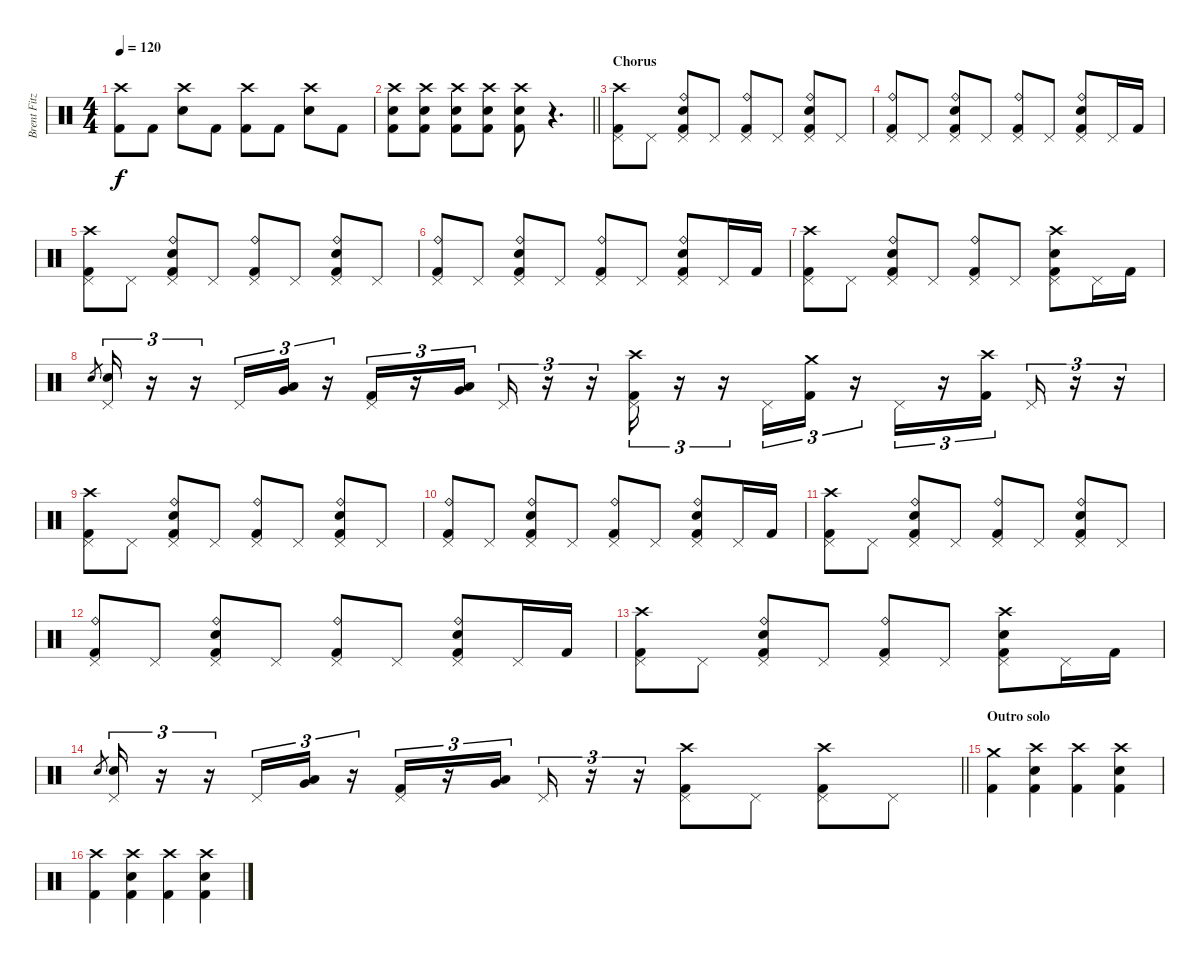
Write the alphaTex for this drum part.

\track ("Brent Fitz" "Brent Fitz") {instrument percussion}
\staff {score}
\articulation defaults
\ts (4 4)
\tempo 120
\clef neutral
\ks c
("Crash high (hit)" "Kick (hit) 2").8{dy f} "Kick (hit) 2".8 ("Crash high (hit)" "Electric Snare (hit)").8 "Kick (hit) 2".8 ("Crash high (hit)" "Kick (hit) 2").8 "Kick (hit) 2".8 ("Crash high (hit)" "Electric Snare (hit)").8 "Kick (hit) 2".8 |
\barLineRight lightlight
("Crash high (hit)" "Electric Snare (hit)" "Kick (hit) 2").8 ("Crash high (hit)" "Electric Snare (hit)" "Kick (hit) 2").8 ("Crash high (hit)" "Electric Snare (hit)" "Kick (hit) 2").8 ("Crash high (hit)" "Electric Snare (hit)" "Kick (hit) 2").8 ("Crash high (hit)" "Electric Snare (hit)" "Kick (hit) 2").8 r.4{d} |
\section ("" "Chorus")
("Crash high (hit)" "Pedal Hi-Hat (hit)" "Kick (hit) 2").8 "Pedal Hi-Hat (hit)".8 ("Ride (bell)" "Electric Snare (hit)" "Pedal Hi-Hat (hit)" "Kick (hit) 2").8 "Pedal Hi-Hat (hit)".8 ("Ride (bell)" "Pedal Hi-Hat (hit)" "Kick (hit) 2").8 "Pedal Hi-Hat (hit)".8 ("Ride (bell)" "Electric Snare (hit)" "Pedal Hi-Hat (hit)" "Kick (hit) 2").8 "Pedal Hi-Hat (hit)".8 |
("Ride (bell)" "Pedal Hi-Hat (hit)" "Kick (hit) 2").8 "Pedal Hi-Hat (hit)".8 ("Ride (bell)" "Electric Snare (hit)" "Pedal Hi-Hat (hit)" "Kick (hit) 2").8 "Pedal Hi-Hat (hit)".8 ("Ride (bell)" "Pedal Hi-Hat (hit)" "Kick (hit) 2").8 "Pedal Hi-Hat (hit)".8 ("Ride (bell)" "Electric Snare (hit)" "Pedal Hi-Hat (hit)" "Kick (hit) 2").8 "Pedal Hi-Hat (hit)".16 "Kick (hit) 2".16 |
("Crash high (hit)" "Pedal Hi-Hat (hit)" "Kick (hit) 2").8 "Pedal Hi-Hat (hit)".8 ("Ride (bell)" "Electric Snare (hit)" "Pedal Hi-Hat (hit)" "Kick (hit) 2").8 "Pedal Hi-Hat (hit)".8 ("Ride (bell)" "Pedal Hi-Hat (hit)" "Kick (hit) 2").8 "Pedal Hi-Hat (hit)".8 ("Ride (bell)" "Electric Snare (hit)" "Pedal Hi-Hat (hit)" "Kick (hit) 2").8 "Pedal Hi-Hat (hit)".8 |
("Ride (bell)" "Pedal Hi-Hat (hit)" "Kick (hit) 2").8 "Pedal Hi-Hat (hit)".8 ("Ride (bell)" "Electric Snare (hit)" "Pedal Hi-Hat (hit)" "Kick (hit) 2").8 "Pedal Hi-Hat (hit)".8 ("Ride (bell)" "Pedal Hi-Hat (hit)" "Kick (hit) 2").8 "Pedal Hi-Hat (hit)".8 ("Ride (bell)" "Electric Snare (hit)" "Pedal Hi-Hat (hit)" "Kick (hit) 2").8 "Pedal Hi-Hat (hit)".16 "Kick (hit) 2".16 |
("Crash high (hit)" "Pedal Hi-Hat (hit)" "Kick (hit) 2").8 "Pedal Hi-Hat (hit)".8 ("Ride (bell)" "Electric Snare (hit)" "Pedal Hi-Hat (hit)" "Kick (hit) 2").8 "Pedal Hi-Hat (hit)".8 ("Ride (bell)" "Pedal Hi-Hat (hit)" "Kick (hit) 2").8 "Pedal Hi-Hat (hit)".8 ("Crash high (hit)" "Electric Snare (hit)" "Pedal Hi-Hat (hit)" "Kick (hit) 2").8 "Pedal Hi-Hat (hit)".16 "Kick (hit) 2".16 |
"Electric Snare (hit)".8{gr} ("Electric Snare (hit)" "Pedal Hi-Hat (hit)").16{tu (3 2)} r.16{tu (3 2)} r.16{tu (3 2)} "Pedal Hi-Hat (hit)".16{tu (3 2)} ("Low Tom (hit)" "Very Low Tom (hit)").16{tu (3 2)} r.16{tu (3 2)} ("Kick (hit) 2" "Pedal Hi-Hat (hit)").16{tu (3 2)} r.16{tu (3 2)} ("Low Tom (hit)" "Very Low Tom (hit)").16{tu (3 2)} "Pedal Hi-Hat (hit)".16{tu (3 2)} r.16{tu (3 2)} r.16{tu (3 2)} ("Crash high (hit)" "Kick (hit) 2" "Pedal Hi-Hat (hit)").16{tu (3 2)} r.16{tu (3 2)} r.16{tu (3 2)} "Pedal Hi-Hat (hit)".16{tu (3 2)} ("Crash medium (hit)" "Kick (hit) 2").16{tu (3 2)} r.16{tu (3 2)} "Pedal Hi-Hat (hit)".16{tu (3 2)} r.16{tu (3 2)} ("Crash high (hit)" "Kick (hit) 2").16{tu (3 2)} "Pedal Hi-Hat (hit)".16{tu (3 2)} r.16{tu (3 2)} r.16{tu (3 2)} |
("Crash high (hit)" "Pedal Hi-Hat (hit)" "Kick (hit) 2").8 "Pedal Hi-Hat (hit)".8 ("Ride (bell)" "Electric Snare (hit)" "Pedal Hi-Hat (hit)" "Kick (hit) 2").8 "Pedal Hi-Hat (hit)".8 ("Ride (bell)" "Pedal Hi-Hat (hit)" "Kick (hit) 2").8 "Pedal Hi-Hat (hit)".8 ("Ride (bell)" "Electric Snare (hit)" "Pedal Hi-Hat (hit)" "Kick (hit) 2").8 "Pedal Hi-Hat (hit)".8 |
("Ride (bell)" "Pedal Hi-Hat (hit)" "Kick (hit) 2").8 "Pedal Hi-Hat (hit)".8 ("Ride (bell)" "Electric Snare (hit)" "Pedal Hi-Hat (hit)" "Kick (hit) 2").8 "Pedal Hi-Hat (hit)".8 ("Ride (bell)" "Pedal Hi-Hat (hit)" "Kick (hit) 2").8 "Pedal Hi-Hat (hit)".8 ("Ride (bell)" "Electric Snare (hit)" "Pedal Hi-Hat (hit)" "Kick (hit) 2").8 "Pedal Hi-Hat (hit)".16 "Kick (hit) 2".16 |
("Crash high (hit)" "Pedal Hi-Hat (hit)" "Kick (hit) 2").8 "Pedal Hi-Hat (hit)".8 ("Ride (bell)" "Electric Snare (hit)" "Pedal Hi-Hat (hit)" "Kick (hit) 2").8 "Pedal Hi-Hat (hit)".8 ("Ride (bell)" "Pedal Hi-Hat (hit)" "Kick (hit) 2").8 "Pedal Hi-Hat (hit)".8 ("Ride (bell)" "Electric Snare (hit)" "Pedal Hi-Hat (hit)" "Kick (hit) 2").8 "Pedal Hi-Hat (hit)".8 |
("Ride (bell)" "Pedal Hi-Hat (hit)" "Kick (hit) 2").8 "Pedal Hi-Hat (hit)".8 ("Ride (bell)" "Electric Snare (hit)" "Pedal Hi-Hat (hit)" "Kick (hit) 2").8 "Pedal Hi-Hat (hit)".8 ("Ride (bell)" "Pedal Hi-Hat (hit)" "Kick (hit) 2").8 "Pedal Hi-Hat (hit)".8 ("Ride (bell)" "Electric Snare (hit)" "Pedal Hi-Hat (hit)" "Kick (hit) 2").8 "Pedal Hi-Hat (hit)".16 "Kick (hit) 2".16 |
("Crash high (hit)" "Pedal Hi-Hat (hit)" "Kick (hit) 2").8 "Pedal Hi-Hat (hit)".8 ("Ride (bell)" "Electric Snare (hit)" "Pedal Hi-Hat (hit)" "Kick (hit) 2").8 "Pedal Hi-Hat (hit)".8 ("Ride (bell)" "Pedal Hi-Hat (hit)" "Kick (hit) 2").8 "Pedal Hi-Hat (hit)".8 ("Crash high (hit)" "Electric Snare (hit)" "Pedal Hi-Hat (hit)" "Kick (hit) 2").8 "Pedal Hi-Hat (hit)".16 "Kick (hit) 2".16 |
\barLineRight lightlight "Electric Snare (hit)".8{gr}
("Electric Snare (hit)" "Pedal Hi-Hat (hit)").16{tu (3 2)} r.16{tu (3 2)} r.16{tu (3 2)} "Pedal Hi-Hat (hit)".16{tu (3 2)} ("Low Tom (hit)" "Very Low Tom (hit)").16{tu (3 2)} r.16{tu (3 2)} ("Kick (hit) 2" "Pedal Hi-Hat (hit)").16{tu (3 2)} r.16{tu (3 2)} ("Low Tom (hit)" "Very Low Tom (hit)").16{tu (3 2)} "Pedal Hi-Hat (hit)".16{tu (3 2)} r.16{tu (3 2)} r.16{tu (3 2)} ("Crash high (hit)" "Kick (hit) 2" "Pedal Hi-Hat (hit)").8 "Pedal Hi-Hat (hit)".8 ("Crash high (hit)" "Kick (hit) 2" "Pedal Hi-Hat (hit)").8 "Pedal Hi-Hat (hit)".8 |
\section ("" "Outro solo")
("Crash medium (hit)" "Kick (hit) 2").4 ("Crash high (hit)" "Electric Snare (hit)" "Kick (hit) 2").4 ("Crash high (hit)" "Kick (hit) 2").4 ("Crash high (hit)" "Electric Snare (hit)" "Kick (hit) 2").4 |
("Crash high (hit)" "Kick (hit) 2").4 ("Crash high (hit)" "Electric Snare (hit)" "Kick (hit) 2").4 ("Crash high (hit)" "Kick (hit) 2").4 ("Crash high (hit)" "Electric Snare (hit)" "Kick (hit) 2").4
